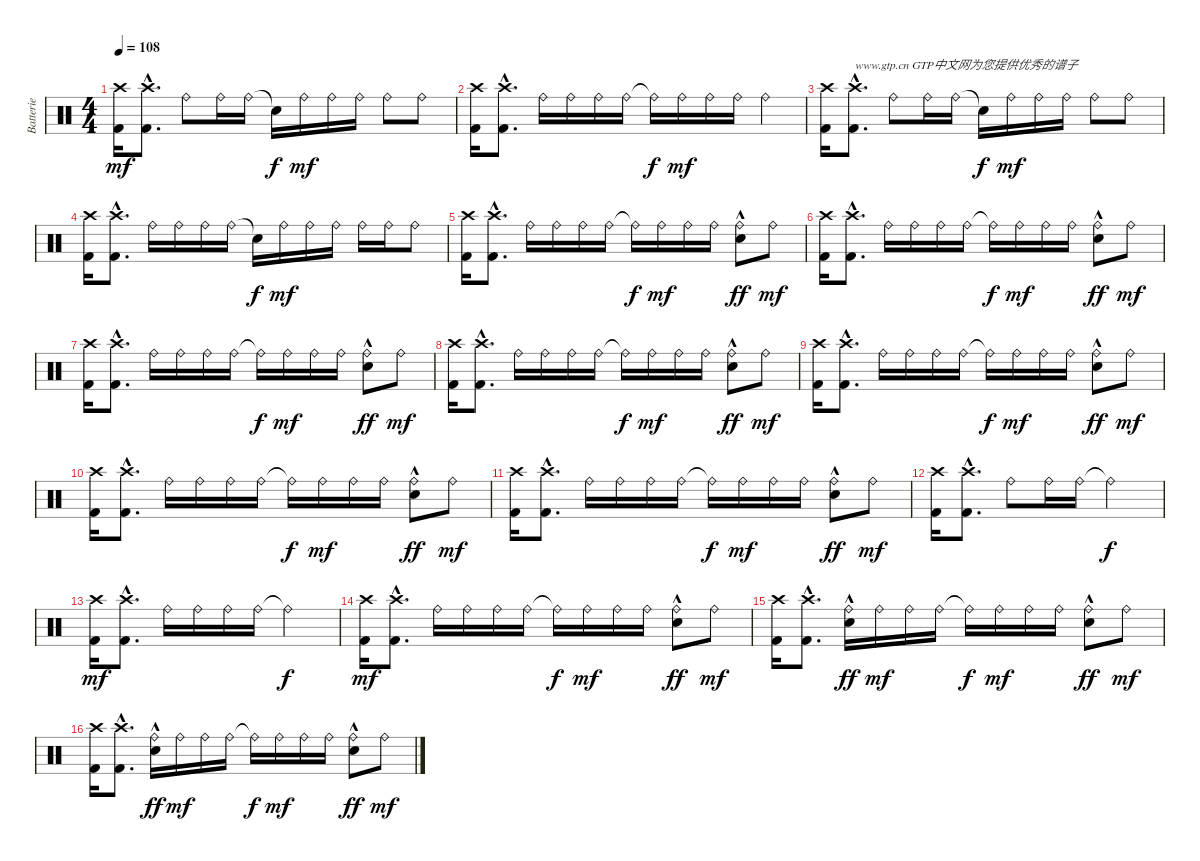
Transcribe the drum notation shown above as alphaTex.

\track ("Batterie" "Batterie") {instrument percussion}
\staff {score}
\articulation defaults
\ts (4 4)
\tempo 108
\clef neutral
\ks c
("Crash high (hit)" "Kick (hit) 2").16{dy mf} ("Crash high (hit)"{hac} "Kick (hit) 2"{hac}).8{d} "Ride (bell)".8 "Ride (bell)".16 "Ride (bell)".16 "Snare (hit)"{t}.16{dy f} "Ride (bell)".16{dy mf} "Ride (bell)".16 "Ride (bell)".16 "Ride (bell)".8 "Ride (bell)".8 |
("Crash high (hit)" "Kick (hit) 2").16 ("Crash high (hit)"{hac} "Kick (hit) 2"{hac}).8{d} "Ride (bell)".16 "Ride (bell)".16 "Ride (bell)".16 "Ride (bell)".16 "Ride (bell)"{t}.16{dy f} "Ride (bell)".16{dy mf} "Ride (bell)".16 "Ride (bell)".16 "Ride (bell)".4 |
("Crash high (hit)" "Kick (hit) 2").16 ("Crash high (hit)"{hac} "Kick (hit) 2"{hac}).8{d txt "www.gtp.cn GTP中文网为您提供优秀的谱子"} "Ride (bell)".8 "Ride (bell)".16 "Ride (bell)".16 "Snare (hit)"{t}.16{dy f} "Ride (bell)".16{dy mf} "Ride (bell)".16 "Ride (bell)".16 "Ride (bell)".8 "Ride (bell)".8 |
("Crash high (hit)" "Kick (hit) 2").16 ("Crash high (hit)"{hac} "Kick (hit) 2"{hac}).8{d} "Ride (bell)".16 "Ride (bell)".16 "Ride (bell)".16 "Ride (bell)".16 "Snare (hit)"{t}.16{dy f} "Ride (bell)".16{dy mf} "Ride (bell)".16 "Ride (bell)".16 "Ride (bell)".16 "Ride (bell)".16 "Ride (bell)".8 |
("Crash high (hit)" "Kick (hit) 2").16 ("Crash high (hit)"{hac} "Kick (hit) 2"{hac}).8{d} "Ride (bell)".16 "Ride (bell)".16 "Ride (bell)".16 "Ride (bell)".16 "Ride (bell)"{t}.16{dy f} "Ride (bell)".16{dy mf} "Ride (bell)".16 "Ride (bell)".16 ("Ride (bell)" "Snare (hit) 2"{hac}).8{dy ff} "Ride (bell)".8{dy mf} |
("Crash high (hit)" "Kick (hit) 2").16 ("Crash high (hit)"{hac} "Kick (hit) 2"{hac}).8{d} "Ride (bell)".16 "Ride (bell)".16 "Ride (bell)".16 "Ride (bell)".16 "Ride (bell)"{t}.16{dy f} "Ride (bell)".16{dy mf} "Ride (bell)".16 "Ride (bell)".16 ("Ride (bell)" "Snare (hit) 2"{hac}).8{dy ff} "Ride (bell)".8{dy mf} |
("Crash high (hit)" "Kick (hit) 2").16 ("Crash high (hit)"{hac} "Kick (hit) 2"{hac}).8{d} "Ride (bell)".16 "Ride (bell)".16 "Ride (bell)".16 "Ride (bell)".16 "Ride (bell)"{t}.16{dy f} "Ride (bell)".16{dy mf} "Ride (bell)".16 "Ride (bell)".16 ("Ride (bell)" "Snare (hit) 2"{hac}).8{dy ff} "Ride (bell)".8{dy mf} |
("Crash high (hit)" "Kick (hit) 2").16 ("Crash high (hit)"{hac} "Kick (hit) 2"{hac}).8{d} "Ride (bell)".16 "Ride (bell)".16 "Ride (bell)".16 "Ride (bell)".16 "Ride (bell)"{t}.16{dy f} "Ride (bell)".16{dy mf} "Ride (bell)".16 "Ride (bell)".16 ("Ride (bell)" "Snare (hit) 2"{hac}).8{dy ff} "Ride (bell)".8{dy mf} |
("Crash high (hit)" "Kick (hit) 2").16 ("Crash high (hit)"{hac} "Kick (hit) 2"{hac}).8{d} "Ride (bell)".16 "Ride (bell)".16 "Ride (bell)".16 "Ride (bell)".16 "Ride (bell)"{t}.16{dy f} "Ride (bell)".16{dy mf} "Ride (bell)".16 "Ride (bell)".16 ("Ride (bell)" "Snare (hit) 2"{hac}).8{dy ff} "Ride (bell)".8{dy mf} |
("Crash high (hit)" "Kick (hit) 2").16 ("Crash high (hit)"{hac} "Kick (hit) 2"{hac}).8{d} "Ride (bell)".16 "Ride (bell)".16 "Ride (bell)".16 "Ride (bell)".16 "Ride (bell)"{t}.16{dy f} "Ride (bell)".16{dy mf} "Ride (bell)".16 "Ride (bell)".16 ("Ride (bell)" "Snare (hit) 2"{hac}).8{dy ff} "Ride (bell)".8{dy mf} |
("Crash high (hit)" "Kick (hit) 2").16 ("Crash high (hit)"{hac} "Kick (hit) 2"{hac}).8{d} "Ride (bell)".16 "Ride (bell)".16 "Ride (bell)".16 "Ride (bell)".16 "Ride (bell)"{t}.16{dy f} "Ride (bell)".16{dy mf} "Ride (bell)".16 "Ride (bell)".16 ("Ride (bell)" "Snare (hit) 2"{hac}).8{dy ff} "Ride (bell)".8{dy mf} |
("Crash high (hit)" "Kick (hit) 2").16 ("Crash high (hit)"{hac} "Kick (hit) 2"{hac}).8{d} "Ride (bell)".8 "Ride (bell)".16 "Ride (bell)".16 "Ride (bell)"{t}.2{dy f} |
("Crash high (hit)" "Kick (hit) 2").16{dy mf} ("Crash high (hit)"{hac} "Kick (hit) 2"{hac}).8{d} "Ride (bell)".16 "Ride (bell)".16 "Ride (bell)".16 "Ride (bell)".16 "Ride (bell)"{t}.2{dy f} |
("Crash high (hit)" "Kick (hit) 2").16{dy mf} ("Crash high (hit)"{hac} "Kick (hit) 2"{hac}).8{d} "Ride (bell)".16 "Ride (bell)".16 "Ride (bell)".16 "Ride (bell)".16 "Ride (bell)"{t}.16{dy f} "Ride (bell)".16{dy mf} "Ride (bell)".16 "Ride (bell)".16 ("Ride (bell)" "Snare (hit) 2"{hac}).8{dy ff} "Ride (bell)".8{dy mf} |
("Crash high (hit)" "Kick (hit) 2").16 ("Crash high (hit)"{hac} "Kick (hit) 2"{hac}).8{d} ("Ride (bell)" "Snare (hit) 2"{hac}).16{dy ff} "Ride (bell)".16{dy mf} "Ride (bell)".16 "Ride (bell)".16 "Ride (bell)"{t}.16{dy f} "Ride (bell)".16{dy mf} "Ride (bell)".16 "Ride (bell)".16 ("Ride (bell)" "Snare (hit) 2"{hac}).8{dy ff} "Ride (bell)".8{dy mf} |
("Crash high (hit)" "Kick (hit) 2").16 ("Crash high (hit)"{hac} "Kick (hit) 2"{hac}).8{d} ("Ride (bell)" "Snare (hit) 2"{hac}).16{dy ff} "Ride (bell)".16{dy mf} "Ride (bell)".16 "Ride (bell)".16 "Ride (bell)"{t}.16{dy f} "Ride (bell)".16{dy mf} "Ride (bell)".16 "Ride (bell)".16 ("Ride (bell)" "Snare (hit) 2"{hac}).8{dy ff} "Ride (bell)".8{dy mf}
